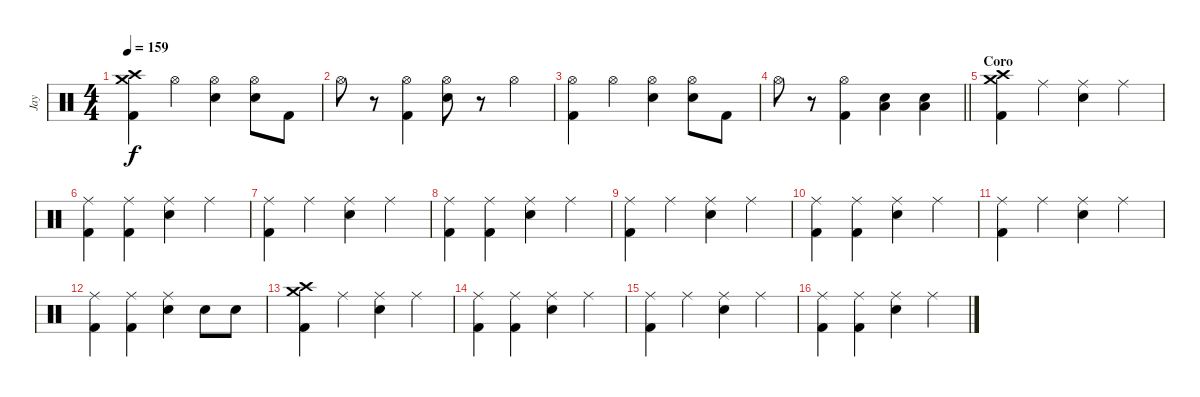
\track ("Jay" "Jay") {instrument percussion}
\staff {score}
\articulation defaults
\ts (4 4)
\tempo 159
\clef neutral
\ks c
("Crash medium (hit)" "Crash high (hit)" "Kick (hit) 2").4{dy f} "Hi-Hat (open)".4 ("Hi-Hat (open)" "Electric Snare (hit)").4 ("Snare (hit)" "Hi-Hat (open)").8 "Kick (hit) 2".8 |
"Hi-Hat (open)".8 r.8 ("Hi-Hat (open)" "Kick (hit) 2").4 ("Hi-Hat (open)" "Electric Snare (hit)").8 r.8 "Hi-Hat (open)".4 |
("Hi-Hat (open)" "Kick (hit) 2").4 "Hi-Hat (open)".4 ("Hi-Hat (open)" "Electric Snare (hit)").4 ("Snare (hit)" "Hi-Hat (open)").8 "Kick (hit) 2".8 |
\barLineRight lightlight "Hi-Hat (open)".8
r.8 ("Hi-Hat (open)" "Kick (hit) 2").4 ("Low Tom (hit)" "Electric Snare (hit)").4 ("Low Tom (hit)" "Electric Snare (hit)").4 |
\section ("" "Coro")
("Crash medium (hit)" "Crash high (hit)" "Kick (hit) 2").4 "Ride (middle)".4 ("Ride (middle)" "Electric Snare (hit)").4 "Ride (middle)".4 |
("Ride (middle)" "Kick (hit) 2").4 ("Ride (middle)" "Kick (hit) 2").4 ("Ride (middle)" "Electric Snare (hit)").4 "Ride (middle)".4 |
("Ride (middle)" "Kick (hit) 2").4 "Ride (middle)".4 ("Ride (middle)" "Electric Snare (hit)").4 "Ride (middle)".4 |
("Ride (middle)" "Kick (hit) 2").4 ("Ride (middle)" "Kick (hit) 2").4 ("Ride (middle)" "Electric Snare (hit)").4 "Ride (middle)".4 |
("Ride (middle)" "Kick (hit) 2").4 "Ride (middle)".4 ("Ride (middle)" "Electric Snare (hit)").4 "Ride (middle)".4 |
("Ride (middle)" "Kick (hit) 2").4 ("Ride (middle)" "Kick (hit) 2").4 ("Ride (middle)" "Electric Snare (hit)").4 "Ride (middle)".4 |
("Ride (middle)" "Kick (hit) 2").4 "Ride (middle)".4 ("Ride (middle)" "Electric Snare (hit)").4 "Ride (middle)".4 |
("Ride (middle)" "Kick (hit) 2").4 ("Ride (middle)" "Kick (hit) 2").4 ("Ride (middle)" "Electric Snare (hit)").4 "Electric Snare (hit)".8 "Electric Snare (hit)".8 |
("Crash medium (hit)" "Crash high (hit)" "Kick (hit) 2").4 "Ride (middle)".4 ("Ride (middle)" "Electric Snare (hit)").4 "Ride (middle)".4 |
("Ride (middle)" "Kick (hit) 2").4 ("Ride (middle)" "Kick (hit) 2").4 ("Ride (middle)" "Electric Snare (hit)").4 "Ride (middle)".4 |
("Ride (middle)" "Kick (hit) 2").4 "Ride (middle)".4 ("Ride (middle)" "Electric Snare (hit)").4 "Ride (middle)".4 |
("Ride (middle)" "Kick (hit) 2").4 ("Ride (middle)" "Kick (hit) 2").4 ("Ride (middle)" "Electric Snare (hit)").4 "Ride (middle)".4
